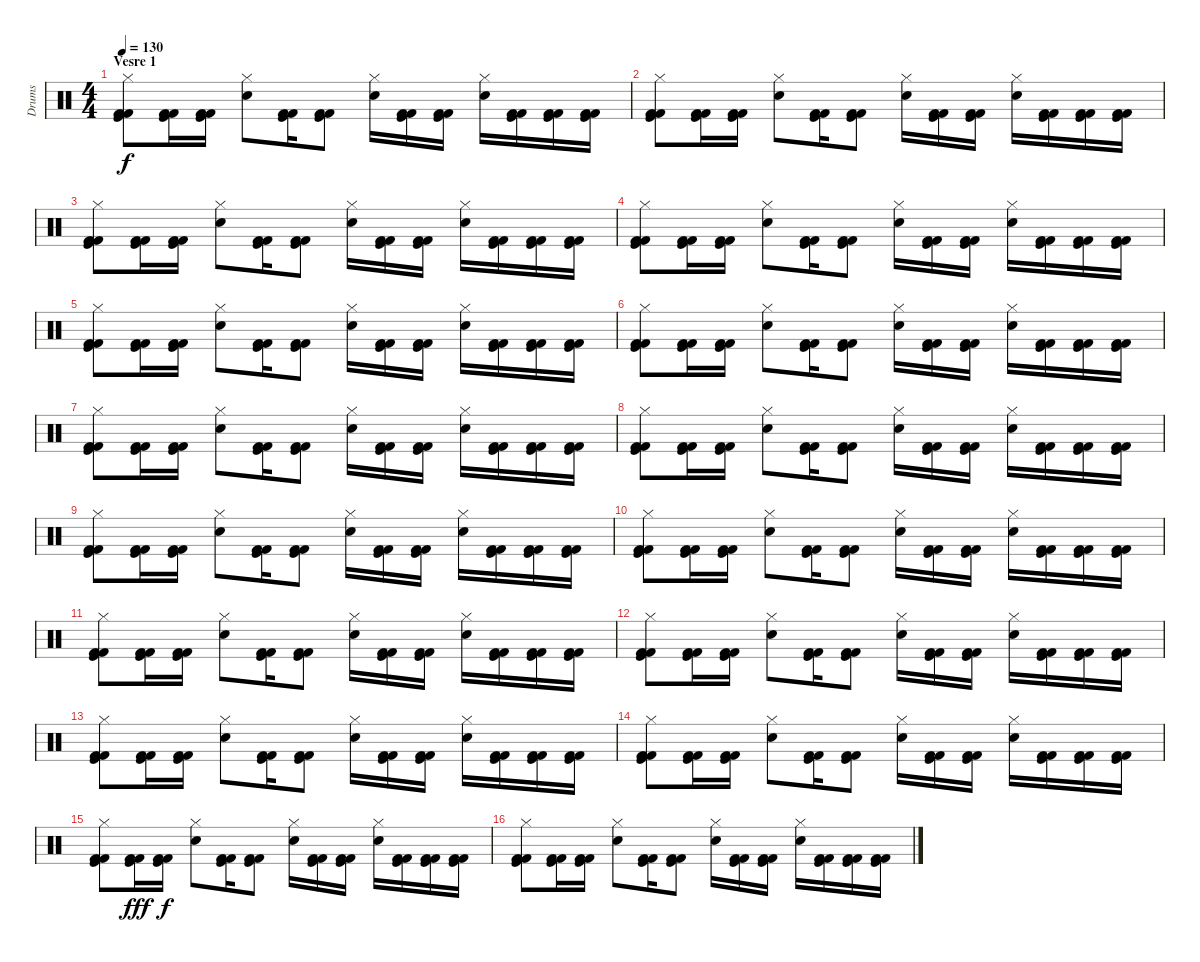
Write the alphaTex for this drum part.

\track ("Drums" "Drums") {instrument percussion}
\staff {score}
\articulation defaults
\ts (4 4)
\section ("" "Vesre 1")
\tempo 130
\clef neutral
\ks c
("Hi-Hat (closed)" "Kick (hit)" "Kick (hit) 2" "Kick (hit) 2").8{dy f} ("Kick (hit)" "Kick (hit) 2" "Kick (hit) 2").16 ("Kick (hit)" "Kick (hit) 2" "Kick (hit) 2").16 ("Hi-Hat (closed)" "Electric Snare (hit)").8 ("Kick (hit)" "Kick (hit) 2" "Kick (hit) 2").16 ("Kick (hit)" "Kick (hit) 2" "Kick (hit) 2").8 ("Hi-Hat (closed)" "Electric Snare (hit)").16 ("Kick (hit)" "Kick (hit) 2" "Kick (hit) 2").16 ("Kick (hit)" "Kick (hit) 2" "Kick (hit) 2").16 ("Hi-Hat (closed)" "Electric Snare (hit)").16 ("Kick (hit)" "Kick (hit) 2" "Kick (hit) 2").16 ("Kick (hit)" "Kick (hit) 2" "Kick (hit) 2").16 ("Kick (hit)" "Kick (hit) 2" "Kick (hit) 2").16 |
("Hi-Hat (closed)" "Kick (hit)" "Kick (hit) 2" "Kick (hit) 2").8 ("Kick (hit)" "Kick (hit) 2" "Kick (hit) 2").16 ("Kick (hit)" "Kick (hit) 2" "Kick (hit) 2").16 ("Hi-Hat (closed)" "Electric Snare (hit)").8 ("Kick (hit)" "Kick (hit) 2" "Kick (hit) 2").16 ("Kick (hit)" "Kick (hit) 2" "Kick (hit) 2").8 ("Hi-Hat (closed)" "Electric Snare (hit)").16 ("Kick (hit)" "Kick (hit) 2" "Kick (hit) 2").16 ("Kick (hit)" "Kick (hit) 2" "Kick (hit) 2").16 ("Hi-Hat (closed)" "Electric Snare (hit)").16 ("Kick (hit)" "Kick (hit) 2" "Kick (hit) 2").16 ("Kick (hit)" "Kick (hit) 2" "Kick (hit) 2").16 ("Kick (hit)" "Kick (hit) 2" "Kick (hit) 2").16 |
("Hi-Hat (closed)" "Kick (hit)" "Kick (hit) 2" "Kick (hit) 2").8 ("Kick (hit)" "Kick (hit) 2" "Kick (hit) 2").16 ("Kick (hit)" "Kick (hit) 2" "Kick (hit) 2").16 ("Hi-Hat (closed)" "Electric Snare (hit)").8 ("Kick (hit)" "Kick (hit) 2" "Kick (hit) 2").16 ("Kick (hit)" "Kick (hit) 2" "Kick (hit) 2").8 ("Hi-Hat (closed)" "Electric Snare (hit)").16 ("Kick (hit)" "Kick (hit) 2" "Kick (hit) 2").16 ("Kick (hit)" "Kick (hit) 2" "Kick (hit) 2").16 ("Hi-Hat (closed)" "Electric Snare (hit)").16 ("Kick (hit)" "Kick (hit) 2" "Kick (hit) 2").16 ("Kick (hit)" "Kick (hit) 2" "Kick (hit) 2").16 ("Kick (hit)" "Kick (hit) 2" "Kick (hit) 2").16 |
("Hi-Hat (closed)" "Kick (hit)" "Kick (hit) 2" "Kick (hit) 2").8 ("Kick (hit)" "Kick (hit) 2" "Kick (hit) 2").16 ("Kick (hit)" "Kick (hit) 2" "Kick (hit) 2").16 ("Hi-Hat (closed)" "Electric Snare (hit)").8 ("Kick (hit)" "Kick (hit) 2" "Kick (hit) 2").16 ("Kick (hit)" "Kick (hit) 2" "Kick (hit) 2").8 ("Hi-Hat (closed)" "Electric Snare (hit)").16 ("Kick (hit)" "Kick (hit) 2" "Kick (hit) 2").16 ("Kick (hit)" "Kick (hit) 2" "Kick (hit) 2").16 ("Hi-Hat (closed)" "Electric Snare (hit)").16 ("Kick (hit)" "Kick (hit) 2" "Kick (hit) 2").16 ("Kick (hit)" "Kick (hit) 2" "Kick (hit) 2").16 ("Kick (hit)" "Kick (hit) 2" "Kick (hit) 2").16 |
("Hi-Hat (closed)" "Kick (hit)" "Kick (hit) 2" "Kick (hit) 2").8 ("Kick (hit)" "Kick (hit) 2" "Kick (hit) 2").16 ("Kick (hit)" "Kick (hit) 2" "Kick (hit) 2").16 ("Hi-Hat (closed)" "Electric Snare (hit)").8 ("Kick (hit)" "Kick (hit) 2" "Kick (hit) 2").16 ("Kick (hit)" "Kick (hit) 2" "Kick (hit) 2").8 ("Hi-Hat (closed)" "Electric Snare (hit)").16 ("Kick (hit)" "Kick (hit) 2" "Kick (hit) 2").16 ("Kick (hit)" "Kick (hit) 2" "Kick (hit) 2").16 ("Hi-Hat (closed)" "Electric Snare (hit)").16 ("Kick (hit)" "Kick (hit) 2" "Kick (hit) 2").16 ("Kick (hit)" "Kick (hit) 2" "Kick (hit) 2").16 ("Kick (hit)" "Kick (hit) 2" "Kick (hit) 2").16 |
("Hi-Hat (closed)" "Kick (hit)" "Kick (hit) 2" "Kick (hit) 2").8 ("Kick (hit)" "Kick (hit) 2" "Kick (hit) 2").16 ("Kick (hit)" "Kick (hit) 2" "Kick (hit) 2").16 ("Hi-Hat (closed)" "Electric Snare (hit)").8 ("Kick (hit)" "Kick (hit) 2" "Kick (hit) 2").16 ("Kick (hit)" "Kick (hit) 2" "Kick (hit) 2").8 ("Hi-Hat (closed)" "Electric Snare (hit)").16 ("Kick (hit)" "Kick (hit) 2" "Kick (hit) 2").16 ("Kick (hit)" "Kick (hit) 2" "Kick (hit) 2").16 ("Hi-Hat (closed)" "Electric Snare (hit)").16 ("Kick (hit)" "Kick (hit) 2" "Kick (hit) 2").16 ("Kick (hit)" "Kick (hit) 2" "Kick (hit) 2").16 ("Kick (hit)" "Kick (hit) 2" "Kick (hit) 2").16 |
("Hi-Hat (closed)" "Kick (hit)" "Kick (hit) 2" "Kick (hit) 2").8 ("Kick (hit)" "Kick (hit) 2" "Kick (hit) 2").16 ("Kick (hit)" "Kick (hit) 2" "Kick (hit) 2").16 ("Hi-Hat (closed)" "Electric Snare (hit)").8 ("Kick (hit)" "Kick (hit) 2" "Kick (hit) 2").16 ("Kick (hit)" "Kick (hit) 2" "Kick (hit) 2").8 ("Hi-Hat (closed)" "Electric Snare (hit)").16 ("Kick (hit)" "Kick (hit) 2" "Kick (hit) 2").16 ("Kick (hit)" "Kick (hit) 2" "Kick (hit) 2").16 ("Hi-Hat (closed)" "Electric Snare (hit)").16 ("Kick (hit)" "Kick (hit) 2" "Kick (hit) 2").16 ("Kick (hit)" "Kick (hit) 2" "Kick (hit) 2").16 ("Kick (hit)" "Kick (hit) 2" "Kick (hit) 2").16 |
("Hi-Hat (closed)" "Kick (hit)" "Kick (hit) 2" "Kick (hit) 2").8 ("Kick (hit)" "Kick (hit) 2" "Kick (hit) 2").16 ("Kick (hit)" "Kick (hit) 2" "Kick (hit) 2").16 ("Hi-Hat (closed)" "Electric Snare (hit)").8 ("Kick (hit)" "Kick (hit) 2" "Kick (hit) 2").16 ("Kick (hit)" "Kick (hit) 2" "Kick (hit) 2").8 ("Hi-Hat (closed)" "Electric Snare (hit)").16 ("Kick (hit)" "Kick (hit) 2" "Kick (hit) 2").16 ("Kick (hit)" "Kick (hit) 2" "Kick (hit) 2").16 ("Hi-Hat (closed)" "Electric Snare (hit)").16 ("Kick (hit)" "Kick (hit) 2" "Kick (hit) 2").16 ("Kick (hit)" "Kick (hit) 2" "Kick (hit) 2").16 ("Kick (hit)" "Kick (hit) 2" "Kick (hit) 2").16 |
("Hi-Hat (closed)" "Kick (hit)" "Kick (hit) 2" "Kick (hit) 2").8 ("Kick (hit)" "Kick (hit) 2" "Kick (hit) 2").16 ("Kick (hit)" "Kick (hit) 2" "Kick (hit) 2").16 ("Hi-Hat (closed)" "Electric Snare (hit)").8 ("Kick (hit)" "Kick (hit) 2" "Kick (hit) 2").16 ("Kick (hit)" "Kick (hit) 2" "Kick (hit) 2").8 ("Hi-Hat (closed)" "Electric Snare (hit)").16 ("Kick (hit)" "Kick (hit) 2" "Kick (hit) 2").16 ("Kick (hit)" "Kick (hit) 2" "Kick (hit) 2").16 ("Hi-Hat (closed)" "Electric Snare (hit)").16 ("Kick (hit)" "Kick (hit) 2" "Kick (hit) 2").16 ("Kick (hit)" "Kick (hit) 2" "Kick (hit) 2").16 ("Kick (hit)" "Kick (hit) 2" "Kick (hit) 2").16 |
("Hi-Hat (closed)" "Kick (hit)" "Kick (hit) 2" "Kick (hit) 2").8 ("Kick (hit)" "Kick (hit) 2" "Kick (hit) 2").16 ("Kick (hit)" "Kick (hit) 2" "Kick (hit) 2").16 ("Hi-Hat (closed)" "Electric Snare (hit)").8 ("Kick (hit)" "Kick (hit) 2" "Kick (hit) 2").16 ("Kick (hit)" "Kick (hit) 2" "Kick (hit) 2").8 ("Hi-Hat (closed)" "Electric Snare (hit)").16 ("Kick (hit)" "Kick (hit) 2" "Kick (hit) 2").16 ("Kick (hit)" "Kick (hit) 2" "Kick (hit) 2").16 ("Hi-Hat (closed)" "Electric Snare (hit)").16 ("Kick (hit)" "Kick (hit) 2" "Kick (hit) 2").16 ("Kick (hit)" "Kick (hit) 2" "Kick (hit) 2").16 ("Kick (hit)" "Kick (hit) 2" "Kick (hit) 2").16 |
("Hi-Hat (closed)" "Kick (hit)" "Kick (hit) 2" "Kick (hit) 2").8 ("Kick (hit)" "Kick (hit) 2" "Kick (hit) 2").16 ("Kick (hit)" "Kick (hit) 2" "Kick (hit) 2").16 ("Hi-Hat (closed)" "Electric Snare (hit)").8 ("Kick (hit)" "Kick (hit) 2" "Kick (hit) 2").16 ("Kick (hit)" "Kick (hit) 2" "Kick (hit) 2").8 ("Hi-Hat (closed)" "Electric Snare (hit)").16 ("Kick (hit)" "Kick (hit) 2" "Kick (hit) 2").16 ("Kick (hit)" "Kick (hit) 2" "Kick (hit) 2").16 ("Hi-Hat (closed)" "Electric Snare (hit)").16 ("Kick (hit)" "Kick (hit) 2" "Kick (hit) 2").16 ("Kick (hit)" "Kick (hit) 2" "Kick (hit) 2").16 ("Kick (hit)" "Kick (hit) 2" "Kick (hit) 2").16 |
("Hi-Hat (closed)" "Kick (hit)" "Kick (hit) 2" "Kick (hit) 2").8 ("Kick (hit)" "Kick (hit) 2" "Kick (hit) 2").16 ("Kick (hit)" "Kick (hit) 2" "Kick (hit) 2").16 ("Hi-Hat (closed)" "Electric Snare (hit)").8 ("Kick (hit)" "Kick (hit) 2" "Kick (hit) 2").16 ("Kick (hit)" "Kick (hit) 2" "Kick (hit) 2").8 ("Hi-Hat (closed)" "Electric Snare (hit)").16 ("Kick (hit)" "Kick (hit) 2" "Kick (hit) 2").16 ("Kick (hit)" "Kick (hit) 2" "Kick (hit) 2").16 ("Hi-Hat (closed)" "Electric Snare (hit)").16 ("Kick (hit)" "Kick (hit) 2" "Kick (hit) 2").16 ("Kick (hit)" "Kick (hit) 2" "Kick (hit) 2").16 ("Kick (hit)" "Kick (hit) 2" "Kick (hit) 2").16 |
("Hi-Hat (closed)" "Kick (hit)" "Kick (hit) 2" "Kick (hit) 2").8 ("Kick (hit)" "Kick (hit) 2" "Kick (hit) 2").16 ("Kick (hit)" "Kick (hit) 2" "Kick (hit) 2").16 ("Hi-Hat (closed)" "Electric Snare (hit)").8 ("Kick (hit)" "Kick (hit) 2" "Kick (hit) 2").16 ("Kick (hit)" "Kick (hit) 2" "Kick (hit) 2").8 ("Hi-Hat (closed)" "Electric Snare (hit)").16 ("Kick (hit)" "Kick (hit) 2" "Kick (hit) 2").16 ("Kick (hit)" "Kick (hit) 2" "Kick (hit) 2").16 ("Hi-Hat (closed)" "Electric Snare (hit)").16 ("Kick (hit)" "Kick (hit) 2" "Kick (hit) 2").16 ("Kick (hit)" "Kick (hit) 2" "Kick (hit) 2").16 ("Kick (hit)" "Kick (hit) 2" "Kick (hit) 2").16 |
("Hi-Hat (closed)" "Kick (hit)" "Kick (hit) 2" "Kick (hit) 2").8 ("Kick (hit)" "Kick (hit) 2" "Kick (hit) 2").16 ("Kick (hit)" "Kick (hit) 2" "Kick (hit) 2").16 ("Hi-Hat (closed)" "Electric Snare (hit)").8 ("Kick (hit)" "Kick (hit) 2" "Kick (hit) 2").16 ("Kick (hit)" "Kick (hit) 2" "Kick (hit) 2").8 ("Hi-Hat (closed)" "Electric Snare (hit)").16 ("Kick (hit)" "Kick (hit) 2" "Kick (hit) 2").16 ("Kick (hit)" "Kick (hit) 2" "Kick (hit) 2").16 ("Hi-Hat (closed)" "Electric Snare (hit)").16 ("Kick (hit)" "Kick (hit) 2" "Kick (hit) 2").16 ("Kick (hit)" "Kick (hit) 2" "Kick (hit) 2").16 ("Kick (hit)" "Kick (hit) 2" "Kick (hit) 2").16 |
("Hi-Hat (closed)" "Kick (hit)" "Kick (hit) 2" "Kick (hit) 2").8 ("Kick (hit)" "Kick (hit) 2" "Kick (hit) 2").16{dy fff} ("Kick (hit)" "Kick (hit) 2" "Kick (hit) 2").16{dy f} ("Hi-Hat (closed)" "Electric Snare (hit)").8 ("Kick (hit)" "Kick (hit) 2" "Kick (hit) 2").16 ("Kick (hit)" "Kick (hit) 2" "Kick (hit) 2").8 ("Hi-Hat (closed)" "Electric Snare (hit)").16 ("Kick (hit)" "Kick (hit) 2" "Kick (hit) 2").16 ("Kick (hit)" "Kick (hit) 2" "Kick (hit) 2").16 ("Hi-Hat (closed)" "Electric Snare (hit)").16 ("Kick (hit)" "Kick (hit) 2" "Kick (hit) 2").16 ("Kick (hit)" "Kick (hit) 2" "Kick (hit) 2").16 ("Kick (hit)" "Kick (hit) 2" "Kick (hit) 2").16 |
("Hi-Hat (closed)" "Kick (hit)" "Kick (hit) 2" "Kick (hit) 2").8 ("Kick (hit)" "Kick (hit) 2" "Kick (hit) 2").16 ("Kick (hit)" "Kick (hit) 2" "Kick (hit) 2").16 ("Hi-Hat (closed)" "Electric Snare (hit)").8 ("Kick (hit)" "Kick (hit) 2" "Kick (hit) 2").16 ("Kick (hit)" "Kick (hit) 2" "Kick (hit) 2").8 ("Hi-Hat (closed)" "Electric Snare (hit)").16 ("Kick (hit)" "Kick (hit) 2" "Kick (hit) 2").16 ("Kick (hit)" "Kick (hit) 2" "Kick (hit) 2").16 ("Hi-Hat (closed)" "Electric Snare (hit)").16 ("Kick (hit)" "Kick (hit) 2" "Kick (hit) 2").16 ("Kick (hit)" "Kick (hit) 2" "Kick (hit) 2").16 ("Kick (hit)" "Kick (hit) 2" "Kick (hit) 2").16
